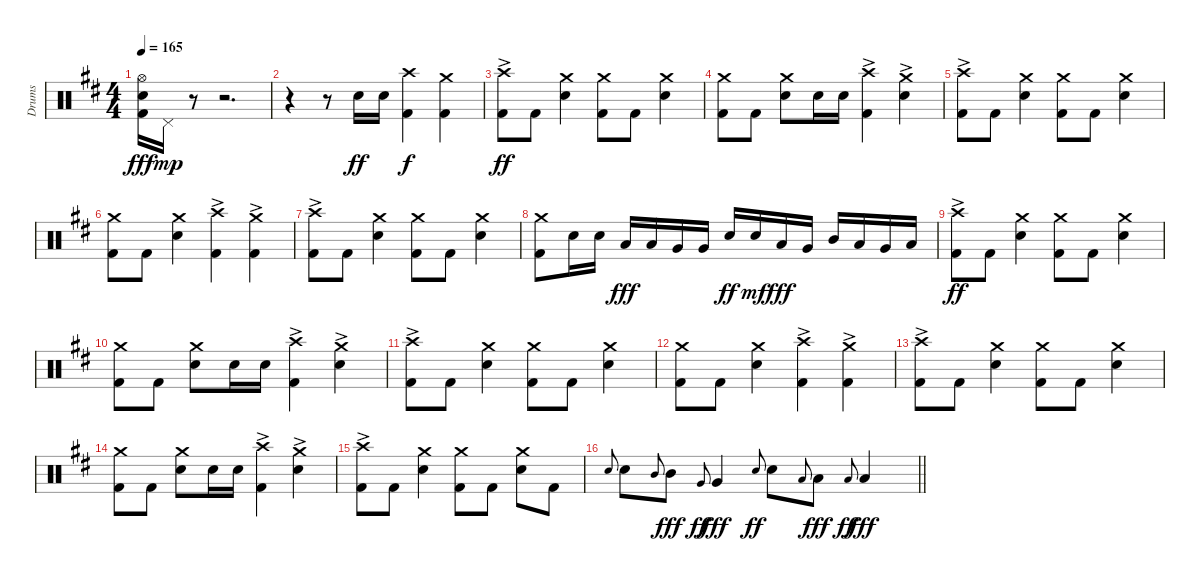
\track ("Drums" "Drums") {instrument percussion}
\staff {score}
\articulation defaults
\ts (4 4)
\tempo 165
\clef neutral
\ks d
("Hi-Hat (open)" "Electric Snare (hit)" "Kick (hit) 2").16{dy fff} "Pedal Hi-Hat (hit)".16{dy mp} r.8 r.2{d} |
r.4{volume 14} r.8 "Electric Snare (hit)".16{dy ff} "Electric Snare (hit)".16 ("Crash high (hit)" "Kick (hit) 2").4{dy f} ("Crash medium (hit)" "Kick (hit) 2").4 |
("Crash high (hit)"{ac} "Kick (hit) 2").8{dy ff} "Kick (hit) 2".8 ("Crash medium (hit)" "Electric Snare (hit)").4 ("Crash medium (hit)" "Kick (hit) 2").8 "Kick (hit) 2".8 ("Crash medium (hit)" "Electric Snare (hit)").4 |
("Crash medium (hit)" "Kick (hit) 2").8 "Kick (hit) 2".8 ("Crash medium (hit)" "Electric Snare (hit)").8 "Electric Snare (hit)".16 "Electric Snare (hit)".16 ("Crash high (hit)"{ac} "Kick (hit) 2").4 ("Crash medium (hit)"{ac} "Electric Snare (hit)").4 |
("Crash high (hit)"{ac} "Kick (hit) 2").8 "Kick (hit) 2".8 ("Crash medium (hit)" "Electric Snare (hit)").4 ("Crash medium (hit)" "Kick (hit) 2").8 "Kick (hit) 2".8 ("Crash medium (hit)" "Electric Snare (hit)").4 |
("Crash medium (hit)" "Kick (hit) 2").8 "Kick (hit) 2".8 ("Crash medium (hit)" "Electric Snare (hit)").4 ("Crash high (hit)"{ac} "Kick (hit) 2").4 ("Crash medium (hit)"{ac} "Kick (hit) 2").4 |
("Crash high (hit)"{ac} "Kick (hit) 2").8 "Kick (hit) 2".8 ("Crash medium (hit)" "Electric Snare (hit)").4 ("Crash medium (hit)" "Kick (hit) 2").8 "Kick (hit) 2".8 ("Crash medium (hit)" "Electric Snare (hit)").4 |
("Crash medium (hit)" "Kick (hit) 2").8 "Electric Snare (hit)".16 "Electric Snare (hit)".16 "Low Tom (hit)".16{dy fff} "Low Tom (hit)".16 "Very Low Tom (hit)".16 "Very Low Tom (hit)".16 "Electric Snare (hit)".16{dy ff} "Electric Snare (hit)".16{dy mf} "Low Tom (hit)".16{dy fff} "Very Low Tom (hit)".16 "Mid Tom (hit)".16 "Low Tom (hit)".16 "Very Low Tom (hit)".16 "Low Floor Tom (hit)".16 |
("Crash high (hit)"{ac} "Kick (hit) 2").8{dy ff} "Kick (hit) 2".8 ("Crash medium (hit)" "Electric Snare (hit)").4 ("Crash medium (hit)" "Kick (hit) 2").8 "Kick (hit) 2".8 ("Crash medium (hit)" "Electric Snare (hit)").4 |
("Crash medium (hit)" "Kick (hit) 2").8 "Kick (hit) 2".8 ("Crash medium (hit)" "Electric Snare (hit)").8 "Electric Snare (hit)".16 "Electric Snare (hit)".16 ("Crash high (hit)"{ac} "Kick (hit) 2").4 ("Crash medium (hit)"{ac} "Electric Snare (hit)").4 |
("Crash high (hit)"{ac} "Kick (hit) 2").8 "Kick (hit) 2".8 ("Crash medium (hit)" "Electric Snare (hit)").4 ("Crash medium (hit)" "Kick (hit) 2").8 "Kick (hit) 2".8 ("Crash medium (hit)" "Electric Snare (hit)").4 |
("Crash medium (hit)" "Kick (hit) 2").8 "Kick (hit) 2".8 ("Crash medium (hit)" "Electric Snare (hit)").4 ("Crash high (hit)"{ac} "Kick (hit) 2").4 ("Crash medium (hit)"{ac} "Kick (hit) 2").4 |
("Crash high (hit)"{ac} "Kick (hit) 2").8 "Kick (hit) 2".8 ("Crash medium (hit)" "Electric Snare (hit)").4 ("Crash medium (hit)" "Kick (hit) 2").8 "Kick (hit) 2".8 ("Crash medium (hit)" "Electric Snare (hit)").4 |
("Crash medium (hit)" "Kick (hit) 2").8 "Kick (hit) 2".8 ("Crash medium (hit)" "Electric Snare (hit)").8 "Electric Snare (hit)".16 "Electric Snare (hit)".16 ("Crash high (hit)"{ac} "Kick (hit) 2").4 ("Crash medium (hit)"{ac} "Electric Snare (hit)").4 |
("Crash high (hit)"{ac} "Kick (hit) 2").8 "Kick (hit) 2".8 ("Crash medium (hit)" "Electric Snare (hit)").4 ("Crash medium (hit)" "Kick (hit) 2").8 "Kick (hit) 2".8 ("Crash medium (hit)" "Electric Snare (hit)").8 "Kick (hit) 2".8 |
\barLineRight lightlight "Electric Snare (hit)".8{gr onbeat} "Electric Snare (hit)".8 "Mid Tom (hit)".8{gr onbeat} "Mid Tom (hit)".8{dy fff} "Very Low Tom (hit)".8{gr onbeat dy ff} "Very Low Tom (hit)".4{dy fff} "Electric Snare (hit)".8{gr onbeat dy ff} "Electric Snare (hit)".8 "Low Tom (hit)".8{gr onbeat} "Low Tom (hit)".8{dy fff} "Low Floor Tom (hit)".8{gr onbeat dy ff} "Low Floor Tom (hit)".4{dy fff}
